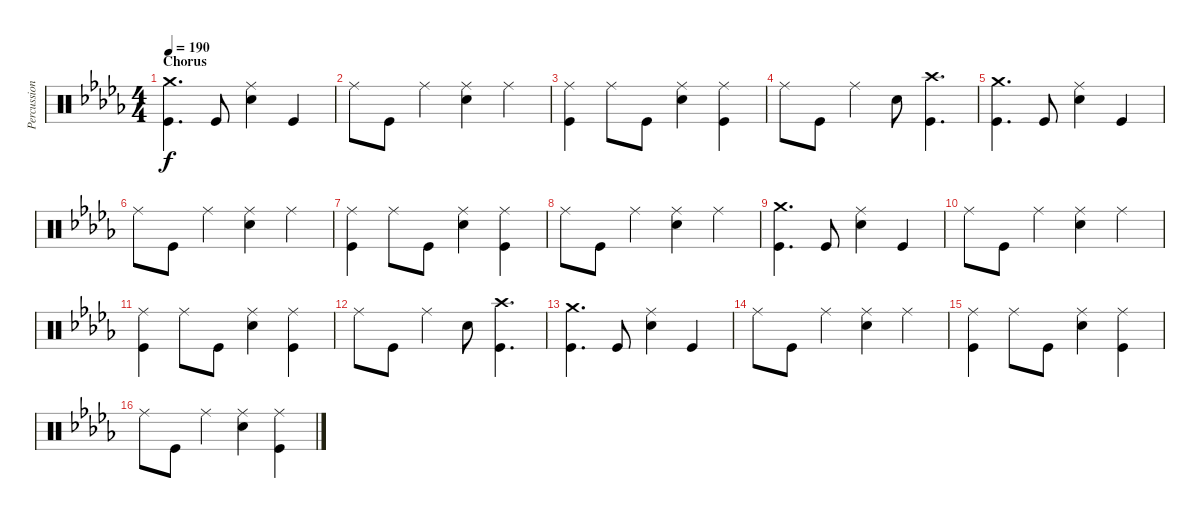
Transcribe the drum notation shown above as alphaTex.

\track ("Percussion" "Percussion") {instrument percussion}
\staff {score}
\articulation defaults
\ts (4 4)
\section ("" "Chorus")
\tempo 190
\clef neutral
\ks db
("Crash medium (hit)" "Kick (hit)").4{d dy f} "Kick (hit)".8 ("Ride (middle)" "Electric Snare (hit)").4 "Kick (hit)".4 |
"Ride (middle)".8 "Kick (hit)".8 "Ride (middle)".4 ("Ride (middle)" "Electric Snare (hit)").4 "Ride (middle)".4 |
("Ride (middle)" "Kick (hit)").4 "Ride (middle)".8 "Kick (hit)".8 ("Ride (middle)" "Electric Snare (hit)").4 ("Ride (middle)" "Kick (hit)").4 |
"Ride (middle)".8 "Kick (hit)".8 "Ride (middle)".4 "Electric Snare (hit)".8 ("Crash high (hit)" "Kick (hit)").4{d} |
("Crash medium (hit)" "Kick (hit)").4{d} "Kick (hit)".8 ("Ride (middle)" "Electric Snare (hit)").4 "Kick (hit)".4 |
"Ride (middle)".8 "Kick (hit)".8 "Ride (middle)".4 ("Ride (middle)" "Electric Snare (hit)").4 "Ride (middle)".4 |
("Ride (middle)" "Kick (hit)").4 "Ride (middle)".8 "Kick (hit)".8 ("Ride (middle)" "Electric Snare (hit)").4 ("Ride (middle)" "Kick (hit)").4 |
"Ride (middle)".8 "Kick (hit)".8 "Ride (middle)".4 ("Ride (middle)" "Electric Snare (hit)").4 "Ride (middle)".4 |
("Crash medium (hit)" "Kick (hit)").4{d} "Kick (hit)".8 ("Ride (middle)" "Electric Snare (hit)").4 "Kick (hit)".4 |
"Ride (middle)".8 "Kick (hit)".8 "Ride (middle)".4 ("Ride (middle)" "Electric Snare (hit)").4 "Ride (middle)".4 |
("Ride (middle)" "Kick (hit)").4 "Ride (middle)".8 "Kick (hit)".8 ("Ride (middle)" "Electric Snare (hit)").4 ("Ride (middle)" "Kick (hit)").4 |
"Ride (middle)".8 "Kick (hit)".8 "Ride (middle)".4 "Electric Snare (hit)".8 ("Crash high (hit)" "Kick (hit)").4{d} |
("Crash medium (hit)" "Kick (hit)").4{d} "Kick (hit)".8 ("Ride (middle)" "Electric Snare (hit)").4 "Kick (hit)".4 |
"Ride (middle)".8 "Kick (hit)".8 "Ride (middle)".4 ("Ride (middle)" "Electric Snare (hit)").4 "Ride (middle)".4 |
("Ride (middle)" "Kick (hit)").4 "Ride (middle)".8 "Kick (hit)".8 ("Ride (middle)" "Electric Snare (hit)").4 ("Ride (middle)" "Kick (hit)").4 |
"Ride (middle)".8 "Kick (hit)".8 "Ride (middle)".4 ("Ride (middle)" "Electric Snare (hit)").4 ("Ride (middle)" "Kick (hit)").4
